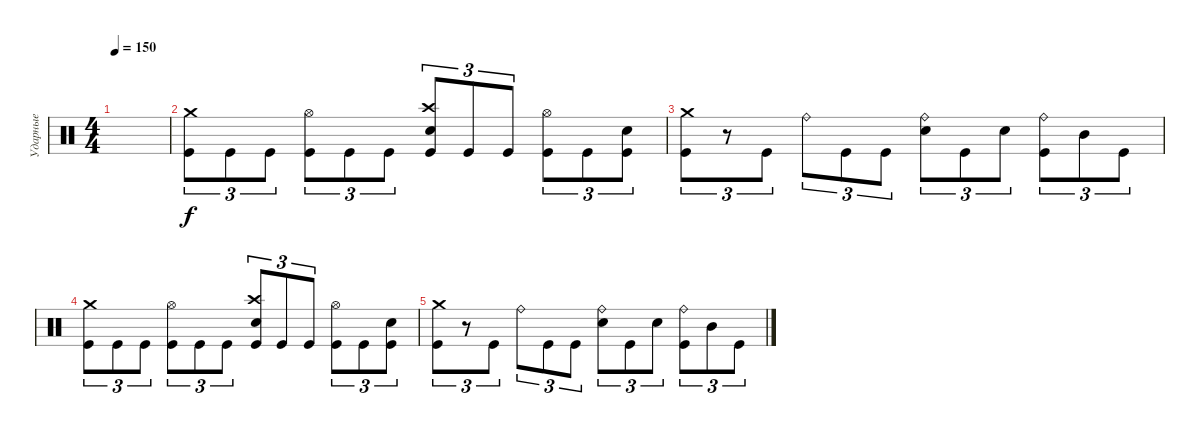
\track ("Ударные" "Ударные") {instrument percussion}
\staff {score}
\articulation defaults
\ts (4 4)
\tempo 150
\clef neutral
\ks c
|
("Kick (hit)" "Crash medium (hit)").8{tu (3 2)} "Kick (hit)".8{tu (3 2)} "Kick (hit)".8{tu (3 2)} ("Kick (hit)" "Hi-Hat (open)").8{tu (3 2)} "Kick (hit)".8{tu (3 2)} "Kick (hit)".8{tu (3 2)} ("Kick (hit)" "Crash high (hit)" "Electric Snare (hit)").8{tu (3 2)} "Kick (hit)".8{tu (3 2)} "Kick (hit)".8{tu (3 2)} ("Kick (hit)" "Hi-Hat (open)").8{tu (3 2)} "Kick (hit)".8{tu (3 2)} ("Kick (hit)" "Electric Snare (hit)").8{tu (3 2)} |
("Kick (hit)" "Crash medium (hit)").8{tu (3 2)} r.8{tu (3 2)} "Kick (hit)".8{tu (3 2)} "Ride (bell)".8{tu (3 2)} "Kick (hit)".8{tu (3 2)} "Kick (hit)".8{tu (3 2)} ("Ride (bell)" "Electric Snare (hit)").8{tu (3 2)} "Kick (hit)".8{tu (3 2)} "Electric Snare (hit)".8{tu (3 2)} ("Ride (bell)" "Kick (hit)").8{tu (3 2)} "Mid Tom (hit)".8{tu (3 2)} "Kick (hit)".8{tu (3 2)} |
("Kick (hit)" "Crash medium (hit)").8{tu (3 2)} "Kick (hit)".8{tu (3 2)} "Kick (hit)".8{tu (3 2)} ("Kick (hit)" "Hi-Hat (open)").8{tu (3 2)} "Kick (hit)".8{tu (3 2)} "Kick (hit)".8{tu (3 2)} ("Kick (hit)" "Crash high (hit)" "Electric Snare (hit)").8{tu (3 2)} "Kick (hit)".8{tu (3 2)} "Kick (hit)".8{tu (3 2)} ("Kick (hit)" "Hi-Hat (open)").8{tu (3 2)} "Kick (hit)".8{tu (3 2)} ("Kick (hit)" "Electric Snare (hit)").8{tu (3 2)} |
("Kick (hit)" "Crash medium (hit)").8{tu (3 2)} r.8{tu (3 2)} "Kick (hit)".8{tu (3 2)} "Ride (bell)".8{tu (3 2)} "Kick (hit)".8{tu (3 2)} "Kick (hit)".8{tu (3 2)} ("Ride (bell)" "Electric Snare (hit)").8{tu (3 2)} "Kick (hit)".8{tu (3 2)} "Electric Snare (hit)".8{tu (3 2)} ("Ride (bell)" "Kick (hit)").8{tu (3 2)} "Mid Tom (hit)".8{tu (3 2)} "Kick (hit)".8{tu (3 2)}
